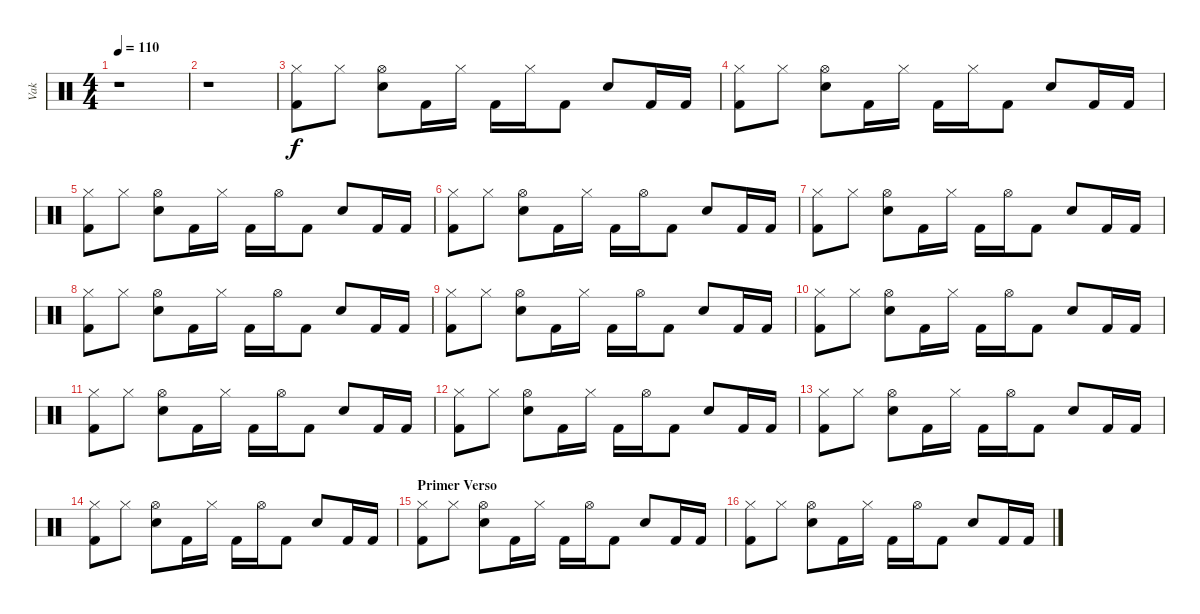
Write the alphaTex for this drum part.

\track ("Vak" "Vak") {instrument percussion}
\staff {score}
\articulation defaults
\ts (4 4)
\tempo 110
\clef neutral
\ks c
r.1{dy f} |
r.1 |
("Kick (hit) 2" "Hi-Hat (closed)").8 "Hi-Hat (closed)".8 ("Snare (hit) 2" "Hi-Hat (open)").8 "Kick (hit) 2".16 "Hi-Hat (closed)".16 "Kick (hit) 2".16 "Hi-Hat (closed)".16 "Kick (hit) 2".8 "Snare (hit) 2".8 "Kick (hit) 2".16 "Kick (hit) 2".16 |
("Kick (hit) 2" "Hi-Hat (closed)").8 "Hi-Hat (closed)".8 ("Snare (hit) 2" "Hi-Hat (open)").8 "Kick (hit) 2".16 "Hi-Hat (closed)".16 "Kick (hit) 2".16 "Hi-Hat (closed)".16 "Kick (hit) 2".8 "Snare (hit) 2".8 "Kick (hit) 2".16 "Kick (hit) 2".16 |
("Kick (hit) 2" "Hi-Hat (closed)").8 "Hi-Hat (closed)".8 ("Snare (hit) 2" "Hi-Hat (open)").8 "Kick (hit) 2".16 "Hi-Hat (closed)".16 "Kick (hit) 2".16 "Hi-Hat (open)".16 "Kick (hit) 2".8 "Snare (hit) 2".8 "Kick (hit) 2".16 "Kick (hit) 2".16 |
("Kick (hit) 2" "Hi-Hat (closed)").8 "Hi-Hat (closed)".8 ("Snare (hit) 2" "Hi-Hat (open)").8 "Kick (hit) 2".16 "Hi-Hat (closed)".16 "Kick (hit) 2".16 "Hi-Hat (open)".16 "Kick (hit) 2".8 "Snare (hit) 2".8 "Kick (hit) 2".16 "Kick (hit) 2".16 |
("Kick (hit) 2" "Hi-Hat (closed)").8 "Hi-Hat (closed)".8 ("Snare (hit) 2" "Hi-Hat (open)").8 "Kick (hit) 2".16 "Hi-Hat (closed)".16 "Kick (hit) 2".16 "Hi-Hat (open)".16 "Kick (hit) 2".8 "Snare (hit) 2".8 "Kick (hit) 2".16 "Kick (hit) 2".16 |
("Kick (hit) 2" "Hi-Hat (closed)").8 "Hi-Hat (closed)".8 ("Snare (hit) 2" "Hi-Hat (open)").8 "Kick (hit) 2".16 "Hi-Hat (closed)".16 "Kick (hit) 2".16 "Hi-Hat (open)".16 "Kick (hit) 2".8 "Snare (hit) 2".8 "Kick (hit) 2".16 "Kick (hit) 2".16 |
("Kick (hit) 2" "Hi-Hat (closed)").8 "Hi-Hat (closed)".8 ("Snare (hit) 2" "Hi-Hat (open)").8 "Kick (hit) 2".16 "Hi-Hat (closed)".16 "Kick (hit) 2".16 "Hi-Hat (open)".16 "Kick (hit) 2".8 "Snare (hit) 2".8 "Kick (hit) 2".16 "Kick (hit) 2".16 |
("Kick (hit) 2" "Hi-Hat (closed)").8 "Hi-Hat (closed)".8 ("Snare (hit) 2" "Hi-Hat (open)").8 "Kick (hit) 2".16 "Hi-Hat (closed)".16 "Kick (hit) 2".16 "Hi-Hat (open)".16 "Kick (hit) 2".8 "Snare (hit) 2".8 "Kick (hit) 2".16 "Kick (hit) 2".16 |
("Kick (hit) 2" "Hi-Hat (closed)").8 "Hi-Hat (closed)".8 ("Snare (hit) 2" "Hi-Hat (open)").8 "Kick (hit) 2".16 "Hi-Hat (closed)".16 "Kick (hit) 2".16 "Hi-Hat (open)".16 "Kick (hit) 2".8 "Snare (hit) 2".8 "Kick (hit) 2".16 "Kick (hit) 2".16 |
("Kick (hit) 2" "Hi-Hat (closed)").8 "Hi-Hat (closed)".8 ("Snare (hit) 2" "Hi-Hat (open)").8 "Kick (hit) 2".16 "Hi-Hat (closed)".16 "Kick (hit) 2".16 "Hi-Hat (open)".16 "Kick (hit) 2".8 "Snare (hit) 2".8 "Kick (hit) 2".16 "Kick (hit) 2".16 |
("Kick (hit) 2" "Hi-Hat (closed)").8 "Hi-Hat (closed)".8 ("Snare (hit) 2" "Hi-Hat (open)").8 "Kick (hit) 2".16 "Hi-Hat (closed)".16 "Kick (hit) 2".16 "Hi-Hat (open)".16 "Kick (hit) 2".8 "Snare (hit) 2".8 "Kick (hit) 2".16 "Kick (hit) 2".16 |
("Kick (hit) 2" "Hi-Hat (closed)").8 "Hi-Hat (closed)".8 ("Snare (hit) 2" "Hi-Hat (open)").8 "Kick (hit) 2".16 "Hi-Hat (closed)".16 "Kick (hit) 2".16 "Hi-Hat (open)".16 "Kick (hit) 2".8 "Snare (hit) 2".8 "Kick (hit) 2".16 "Kick (hit) 2".16 |
\section ("" "Primer Verso")
("Kick (hit) 2" "Hi-Hat (closed)").8 "Hi-Hat (closed)".8 ("Snare (hit) 2" "Hi-Hat (open)").8 "Kick (hit) 2".16 "Hi-Hat (closed)".16 "Kick (hit) 2".16 "Hi-Hat (open)".16 "Kick (hit) 2".8 "Snare (hit) 2".8 "Kick (hit) 2".16 "Kick (hit) 2".16 |
("Kick (hit) 2" "Hi-Hat (closed)").8 "Hi-Hat (closed)".8 ("Snare (hit) 2" "Hi-Hat (open)").8 "Kick (hit) 2".16 "Hi-Hat (closed)".16 "Kick (hit) 2".16 "Hi-Hat (open)".16 "Kick (hit) 2".8 "Snare (hit) 2".8 "Kick (hit) 2".16 "Kick (hit) 2".16
